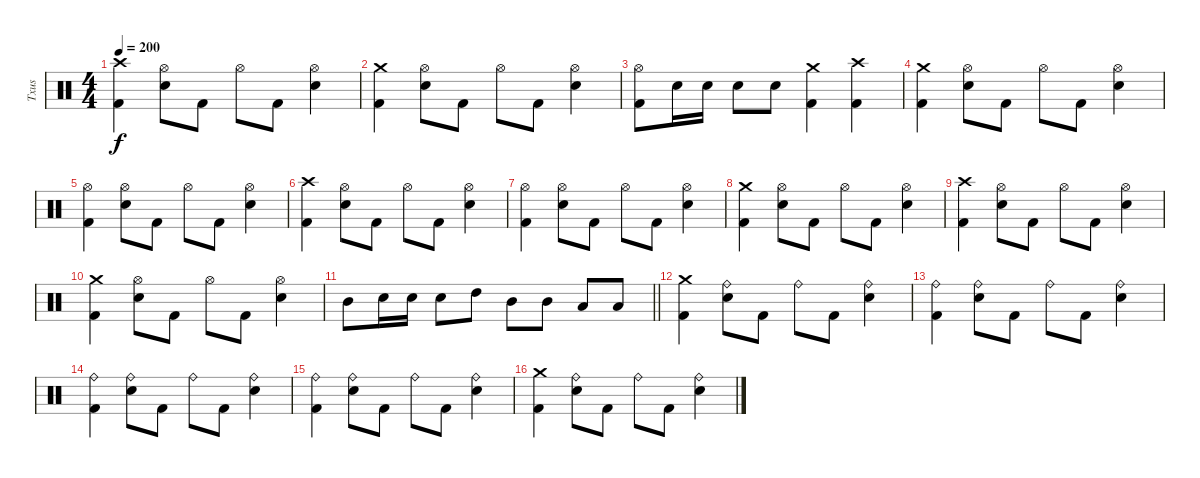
\track ("Txus" "Txus") {instrument percussion}
\staff {score}
\articulation defaults
\ts (4 4)
\tempo 200
\clef neutral
\ks c
("Crash high (hit)" "Kick (hit) 2").4{dy f} ("Hi-Hat (open)" "Snare (hit) 2").8 "Kick (hit) 2".8 "Hi-Hat (open)".8 "Kick (hit) 2".8 ("Hi-Hat (open)" "Snare (hit) 2").4 |
("Crash medium (hit)" "Kick (hit) 2").4 ("Hi-Hat (open)" "Snare (hit) 2").8 "Kick (hit) 2".8 "Hi-Hat (open)".8 "Kick (hit) 2".8 ("Hi-Hat (open)" "Snare (hit) 2").4 |
("Hi-Hat (open)" "Kick (hit) 2").8 "Snare (hit) 2".16 "Snare (hit) 2".16 "Snare (hit) 2".8 "Snare (hit) 2".8 ("Crash medium (hit)" "Kick (hit) 2").4 ("Crash high (hit)" "Kick (hit) 2").4 |
("Crash medium (hit)" "Kick (hit) 2").4 ("Hi-Hat (open)" "Snare (hit) 2").8 "Kick (hit) 2".8 "Hi-Hat (open)".8 "Kick (hit) 2".8 ("Hi-Hat (open)" "Snare (hit) 2").4 |
("Hi-Hat (open)" "Kick (hit) 2").4 ("Hi-Hat (open)" "Snare (hit) 2").8 "Kick (hit) 2".8 "Hi-Hat (open)".8 "Kick (hit) 2".8 ("Hi-Hat (open)" "Snare (hit) 2").4 |
("Crash high (hit)" "Kick (hit) 2").4 ("Hi-Hat (open)" "Snare (hit) 2").8 "Kick (hit) 2".8 "Hi-Hat (open)".8 "Kick (hit) 2".8 ("Hi-Hat (open)" "Snare (hit) 2").4 |
("Hi-Hat (open)" "Kick (hit) 2").4 ("Hi-Hat (open)" "Snare (hit) 2").8 "Kick (hit) 2".8 "Hi-Hat (open)".8 "Kick (hit) 2".8 ("Hi-Hat (open)" "Snare (hit) 2").4 |
("Crash medium (hit)" "Kick (hit) 2").4 ("Hi-Hat (open)" "Snare (hit) 2").8 "Kick (hit) 2".8 "Hi-Hat (open)".8 "Kick (hit) 2".8 ("Hi-Hat (open)" "Snare (hit) 2").4 |
("Crash high (hit)" "Kick (hit) 2").4 ("Hi-Hat (open)" "Snare (hit) 2").8 "Kick (hit) 2".8 "Hi-Hat (open)".8 "Kick (hit) 2".8 ("Hi-Hat (open)" "Snare (hit) 2").4 |
("Crash medium (hit)" "Kick (hit) 2").4 ("Hi-Hat (open)" "Snare (hit) 2").8 "Kick (hit) 2".8 "Hi-Hat (open)".8 "Kick (hit) 2".8 ("Hi-Hat (open)" "Snare (hit) 2").4 |
\barLineRight lightlight "Mid Tom (hit)".8 "Snare (hit) 2".16 "Snare (hit) 2".16 "Snare (hit) 2".8 "High Tom (hit)".8 "Mid Tom (hit)".8 "Mid Tom (hit)".8 "Low Tom (hit)".8 "Low Tom (hit)".8
|
("Crash medium (hit)" "Kick (hit) 2").4 ("Ride (bell)" "Snare (hit) 2").8 "Kick (hit) 2".8 "Ride (bell)".8 "Kick (hit) 2".8 ("Ride (bell)" "Snare (hit) 2").4 |
("Ride (bell)" "Kick (hit) 2").4 ("Ride (bell)" "Snare (hit) 2").8 "Kick (hit) 2".8 "Ride (bell)".8 "Kick (hit) 2".8 ("Ride (bell)" "Snare (hit) 2").4 |
("Ride (bell)" "Kick (hit) 2").4 ("Ride (bell)" "Snare (hit) 2").8 "Kick (hit) 2".8 "Ride (bell)".8 "Kick (hit) 2".8 ("Ride (bell)" "Snare (hit) 2").4 |
("Ride (bell)" "Kick (hit) 2").4 ("Ride (bell)" "Snare (hit) 2").8 "Kick (hit) 2".8 "Ride (bell)".8 "Kick (hit) 2".8 ("Ride (bell)" "Snare (hit) 2").4 |
("Crash medium (hit)" "Kick (hit) 2").4 ("Ride (bell)" "Snare (hit) 2").8 "Kick (hit) 2".8 "Ride (bell)".8 "Kick (hit) 2".8 ("Ride (bell)" "Snare (hit) 2").4
